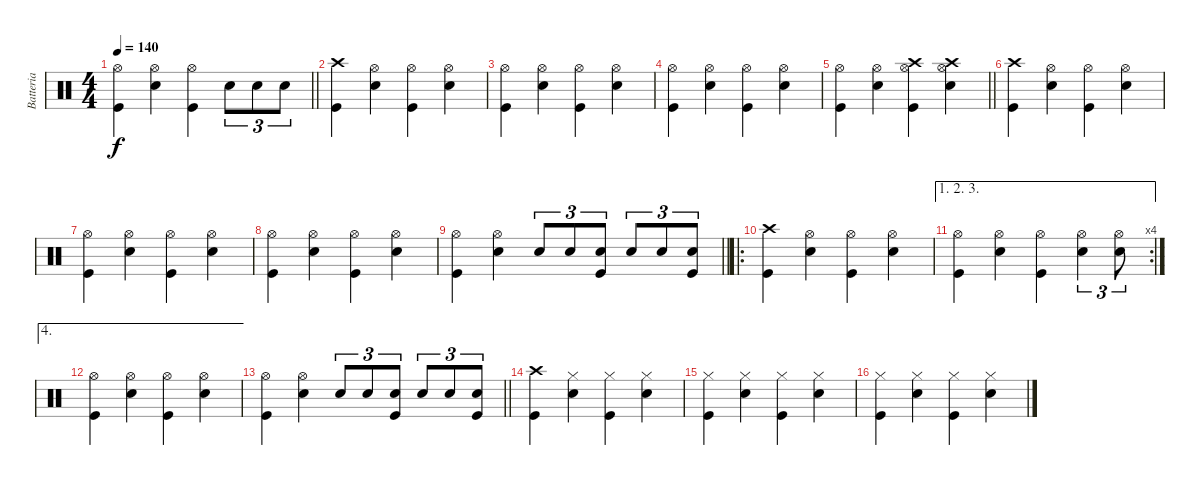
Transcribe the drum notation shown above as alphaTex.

\track ("Batteria" "Batteria") {instrument percussion}
\staff {score}
\articulation defaults
\ts (4 4)
\tempo 140
\clef neutral
\barLineRight lightlight
\ks c
("Hi-Hat (open)" "Kick (hit)").4{dy f} ("Snare (hit) 2" "Hi-Hat (open)").4 ("Hi-Hat (open)" "Kick (hit)").4 "Snare (hit) 2".8{tu (3 2)} "Snare (hit) 2".8{tu (3 2)} "Snare (hit) 2".8{tu (3 2)} |
("Crash high (hit)" "Kick (hit)").4 ("Snare (hit) 2" "Hi-Hat (open)").4 ("Hi-Hat (open)" "Kick (hit)").4 ("Hi-Hat (open)" "Snare (hit) 2").4 |
("Hi-Hat (open)" "Kick (hit)").4 ("Snare (hit) 2" "Hi-Hat (open)").4 ("Hi-Hat (open)" "Kick (hit)").4 ("Snare (hit) 2" "Hi-Hat (open)").4 |
("Hi-Hat (open)" "Kick (hit)").4 ("Snare (hit) 2" "Hi-Hat (open)").4 ("Hi-Hat (open)" "Kick (hit)").4 ("Snare (hit) 2" "Hi-Hat (open)").4 |
\barLineRight lightlight
("Hi-Hat (open)" "Kick (hit)").4 ("Snare (hit) 2" "Hi-Hat (open)").4 ("Hi-Hat (open)" "Kick (hit)" "Crash high (hit)").4 ("Snare (hit) 2" "Hi-Hat (open)" "Crash high (hit)").4 |
("Crash high (hit)" "Kick (hit)").4 ("Snare (hit) 2" "Hi-Hat (open)").4 ("Hi-Hat (open)" "Kick (hit)").4 ("Hi-Hat (open)" "Snare (hit) 2").4 |
("Hi-Hat (open)" "Kick (hit)").4 ("Snare (hit) 2" "Hi-Hat (open)").4 ("Hi-Hat (open)" "Kick (hit)").4 ("Snare (hit) 2" "Hi-Hat (open)").4 |
("Hi-Hat (open)" "Kick (hit)").4 ("Snare (hit) 2" "Hi-Hat (open)").4 ("Hi-Hat (open)" "Kick (hit)").4 ("Snare (hit) 2" "Hi-Hat (open)").4 |
\barLineRight lightlight
("Hi-Hat (open)" "Kick (hit)").4 ("Snare (hit) 2" "Hi-Hat (open)").4 "Snare (hit) 2".8{tu (3 2)} "Snare (hit) 2".8{tu (3 2)} ("Snare (hit) 2" "Kick (hit)").8{tu (3 2)} "Snare (hit) 2".8{tu (3 2)} "Snare (hit) 2".8{tu (3 2)} ("Snare (hit) 2" "Kick (hit)").8{tu (3 2)} |
\ro
("Crash high (hit)" "Kick (hit)").4 ("Snare (hit) 2" "Hi-Hat (open)").4 ("Hi-Hat (open)" "Kick (hit)").4 ("Hi-Hat (open)" "Snare (hit) 2").4 |
\ae (1 2 3)
\rc 4
("Hi-Hat (open)" "Kick (hit)").4 ("Snare (hit) 2" "Hi-Hat (open)").4 ("Hi-Hat (open)" "Kick (hit)").4 ("Hi-Hat (open)" "Snare (hit) 2").4{tu (3 2)} ("Hi-Hat (open)" "Snare (hit) 2").8{tu (3 2)} |
\ae 4
("Hi-Hat (open)" "Kick (hit)").4 ("Snare (hit) 2" "Hi-Hat (open)").4 ("Hi-Hat (open)" "Kick (hit)").4 ("Snare (hit) 2" "Hi-Hat (open)").4 |
\barLineRight lightlight
("Hi-Hat (open)" "Kick (hit)").4 ("Snare (hit) 2" "Hi-Hat (open)").4 "Snare (hit) 2".8{tu (3 2)} "Snare (hit) 2".8{tu (3 2)} ("Snare (hit) 2" "Kick (hit)").8{tu (3 2)} "Snare (hit) 2".8{tu (3 2)} "Snare (hit) 2".8{tu (3 2)} ("Snare (hit) 2" "Kick (hit)").8{tu (3 2)} |
("Crash high (hit)" "Kick (hit)").4 ("Snare (hit) 2" "Hi-Hat (closed)").4 ("Hi-Hat (closed)" "Kick (hit)").4 ("Hi-Hat (closed)" "Snare (hit) 2").4 |
("Hi-Hat (closed)" "Kick (hit)").4 ("Snare (hit) 2" "Hi-Hat (closed)").4 ("Hi-Hat (closed)" "Kick (hit)").4 ("Hi-Hat (closed)" "Snare (hit) 2").4 |
("Hi-Hat (closed)" "Kick (hit)").4 ("Snare (hit) 2" "Hi-Hat (closed)").4 ("Hi-Hat (closed)" "Kick (hit)").4 ("Hi-Hat (closed)" "Snare (hit) 2").4
